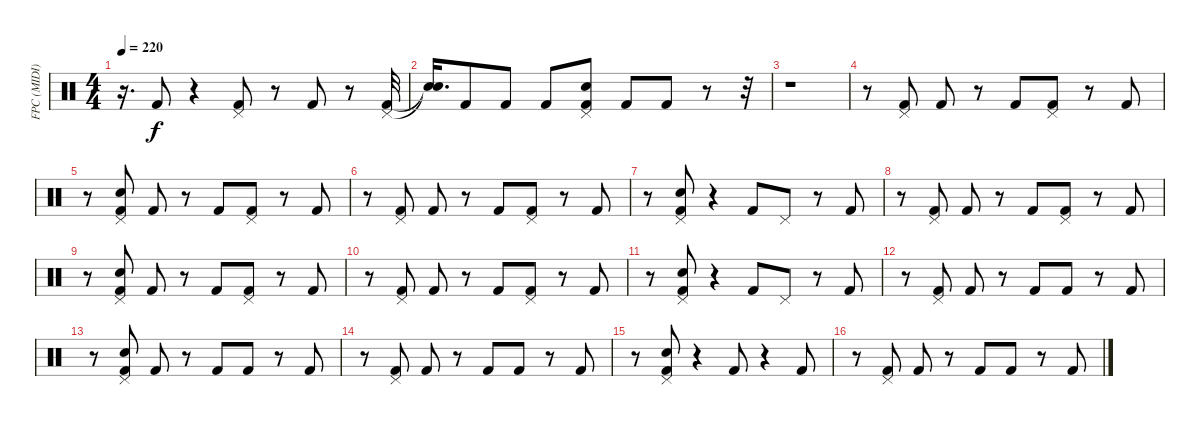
\track ("FPC (MIDI)" "FPC (MIDI)") {instrument percussion}
\staff {score}
\articulation defaults
\ts (4 4)
\tempo 220
\clef neutral
\ks c
r.16{d dy f} "Kick (hit) 2".8 r.4 ("Pedal Hi-Hat (hit)" "Kick (hit) 2").8 r.8 "Kick (hit) 2".8 r.8 ("Kick (hit) 2" "Pedal Hi-Hat (hit)").32 |
("Snare (hit)"{t} "Snare (hit)"{t}).16{d} "Kick (hit) 2".8 "Kick (hit) 2".8 "Kick (hit) 2".8 ("Pedal Hi-Hat (hit)" "Snare (hit) 2" "Kick (hit) 2").8 "Kick (hit) 2".8 "Kick (hit) 2".8 r.8 r.32 |
r.1 |
r.8 ("Pedal Hi-Hat (hit)" "Kick (hit) 2").8 "Kick (hit) 2".8 r.8 "Kick (hit) 2".8 ("Kick (hit) 2" "Pedal Hi-Hat (hit)").8 r.8 "Kick (hit) 2".8 |
r.8 ("Snare (hit) 2" "Pedal Hi-Hat (hit)" "Kick (hit) 2").8 "Kick (hit) 2".8 r.8 "Kick (hit) 2".8 ("Pedal Hi-Hat (hit)" "Kick (hit) 2").8 r.8 "Kick (hit) 2".8 |
r.8 ("Pedal Hi-Hat (hit)" "Kick (hit) 2").8 "Kick (hit) 2".8 r.8 "Kick (hit) 2".8 ("Pedal Hi-Hat (hit)" "Kick (hit) 2").8 r.8 "Kick (hit) 2".8 |
r.8 ("Snare (hit) 2" "Pedal Hi-Hat (hit)" "Kick (hit) 2").8 r.4 "Kick (hit) 2".8 "Pedal Hi-Hat (hit)".8 r.8 "Kick (hit) 2".8 |
r.8 ("Kick (hit) 2" "Pedal Hi-Hat (hit)").8 "Kick (hit) 2".8 r.8 "Kick (hit) 2".8 ("Pedal Hi-Hat (hit)" "Kick (hit) 2").8 r.8 "Kick (hit) 2".8 |
r.8 ("Kick (hit) 2" "Pedal Hi-Hat (hit)" "Snare (hit) 2").8 "Kick (hit) 2".8 r.8 "Kick (hit) 2".8 ("Pedal Hi-Hat (hit)" "Kick (hit) 2").8 r.8 "Kick (hit) 2".8 |
r.8 ("Kick (hit) 2" "Pedal Hi-Hat (hit)").8 "Kick (hit) 2".8 r.8 "Kick (hit) 2".8 ("Kick (hit) 2" "Pedal Hi-Hat (hit)").8 r.8 "Kick (hit) 2".8 |
r.8 ("Kick (hit) 2" "Pedal Hi-Hat (hit)" "Snare (hit) 2").8 r.4 "Kick (hit) 2".8 "Pedal Hi-Hat (hit)".8 r.8 "Kick (hit) 2".8 |
r.8 ("Kick (hit) 2" "Pedal Hi-Hat (hit)").8 "Kick (hit) 2".8 r.8 "Kick (hit) 2".8 "Kick (hit) 2".8 r.8 "Kick (hit) 2".8 |
r.8 ("Snare (hit) 2" "Pedal Hi-Hat (hit)" "Kick (hit) 2").8 "Kick (hit) 2".8 r.8 "Kick (hit) 2".8 "Kick (hit) 2".8 r.8 "Kick (hit) 2".8 |
r.8 ("Pedal Hi-Hat (hit)" "Kick (hit) 2").8 "Kick (hit) 2".8 r.8 "Kick (hit) 2".8 "Kick (hit) 2".8 r.8 "Kick (hit) 2".8 |
r.8 ("Snare (hit) 2" "Pedal Hi-Hat (hit)" "Kick (hit) 2").8 r.4 "Kick (hit) 2".8 r.4 "Kick (hit) 2".8 |
r.8 ("Pedal Hi-Hat (hit)" "Kick (hit) 2").8 "Kick (hit) 2".8 r.8 "Kick (hit) 2".8 "Kick (hit) 2".8 r.8 "Kick (hit) 2".8
